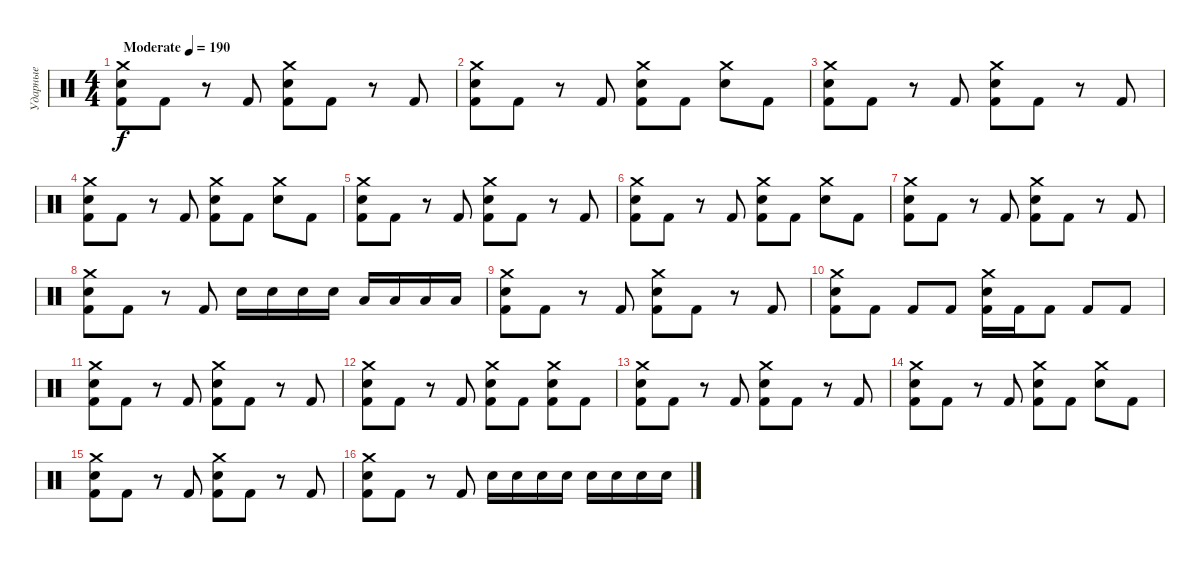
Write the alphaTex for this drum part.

\track ("Ударные" "Ударные") {instrument percussion}
\staff {score}
\articulation defaults
\ts (4 4)
\tempo (190 "Moderate")
\clef neutral
\ks c
("Crash medium (hit)" "Electric Snare (hit)" "Kick (hit) 2").8{dy f} "Kick (hit) 2".8 r.8 "Kick (hit) 2".8 ("Crash medium (hit)" "Electric Snare (hit)" "Kick (hit) 2").8 "Kick (hit) 2".8 r.8 "Kick (hit) 2".8 |
("Crash medium (hit)" "Electric Snare (hit)" "Kick (hit) 2").8 "Kick (hit) 2".8 r.8 "Kick (hit) 2".8 ("Crash medium (hit)" "Electric Snare (hit)" "Kick (hit) 2").8 "Kick (hit) 2".8 ("Crash medium (hit)" "Electric Snare (hit)").8 "Kick (hit) 2".8 |
("Crash medium (hit)" "Electric Snare (hit)" "Kick (hit) 2").8 "Kick (hit) 2".8 r.8 "Kick (hit) 2".8 ("Crash medium (hit)" "Electric Snare (hit)" "Kick (hit) 2").8 "Kick (hit) 2".8 r.8 "Kick (hit) 2".8 |
("Crash medium (hit)" "Electric Snare (hit)" "Kick (hit) 2").8 "Kick (hit) 2".8 r.8 "Kick (hit) 2".8 ("Crash medium (hit)" "Electric Snare (hit)" "Kick (hit) 2").8 "Kick (hit) 2".8 ("Crash medium (hit)" "Electric Snare (hit)").8 "Kick (hit) 2".8 |
("Crash medium (hit)" "Electric Snare (hit)" "Kick (hit) 2").8 "Kick (hit) 2".8 r.8 "Kick (hit) 2".8 ("Crash medium (hit)" "Electric Snare (hit)" "Kick (hit) 2").8 "Kick (hit) 2".8 r.8 "Kick (hit) 2".8 |
("Crash medium (hit)" "Electric Snare (hit)" "Kick (hit) 2").8 "Kick (hit) 2".8 r.8 "Kick (hit) 2".8 ("Crash medium (hit)" "Electric Snare (hit)" "Kick (hit) 2").8 "Kick (hit) 2".8 ("Crash medium (hit)" "Electric Snare (hit)").8 "Kick (hit) 2".8 |
("Crash medium (hit)" "Electric Snare (hit)" "Kick (hit) 2").8 "Kick (hit) 2".8 r.8 "Kick (hit) 2".8 ("Crash medium (hit)" "Electric Snare (hit)" "Kick (hit) 2").8 "Kick (hit) 2".8 r.8 "Kick (hit) 2".8 |
("Crash medium (hit)" "Electric Snare (hit)" "Kick (hit) 2").8 "Kick (hit) 2".8 r.8 "Kick (hit) 2".8 "Electric Snare (hit)".16 "Electric Snare (hit)".16 "Electric Snare (hit)".16 "Electric Snare (hit)".16 "Low Tom (hit)".16 "Low Tom (hit)".16 "Low Tom (hit)".16 "Low Tom (hit)".16 |
("Crash medium (hit)" "Electric Snare (hit)" "Kick (hit) 2").8 "Kick (hit) 2".8 r.8 "Kick (hit) 2".8 ("Crash medium (hit)" "Electric Snare (hit)" "Kick (hit) 2").8 "Kick (hit) 2".8 r.8 "Kick (hit) 2".8 |
("Crash medium (hit)" "Electric Snare (hit)" "Kick (hit) 2").8 "Kick (hit) 2".8 "Kick (hit) 2".8 "Kick (hit) 2".8 ("Crash medium (hit)" "Electric Snare (hit)" "Kick (hit) 2").16 "Kick (hit) 2".16 "Kick (hit) 2".8 "Kick (hit) 2".8 "Kick (hit) 2".8 |
("Crash medium (hit)" "Electric Snare (hit)" "Kick (hit) 2").8 "Kick (hit) 2".8 r.8 "Kick (hit) 2".8 ("Crash medium (hit)" "Electric Snare (hit)" "Kick (hit) 2").8 "Kick (hit) 2".8 r.8 "Kick (hit) 2".8 |
("Crash medium (hit)" "Electric Snare (hit)" "Kick (hit) 2").8 "Kick (hit) 2".8 r.8 "Kick (hit) 2".8 ("Crash medium (hit)" "Electric Snare (hit)" "Kick (hit) 2").8 "Kick (hit) 2".8 ("Crash medium (hit)" "Electric Snare (hit)" "Kick (hit) 2").8 "Kick (hit) 2".8 |
("Crash medium (hit)" "Electric Snare (hit)" "Kick (hit) 2").8 "Kick (hit) 2".8 r.8 "Kick (hit) 2".8 ("Crash medium (hit)" "Electric Snare (hit)" "Kick (hit) 2").8 "Kick (hit) 2".8 r.8 "Kick (hit) 2".8 |
("Crash medium (hit)" "Electric Snare (hit)" "Kick (hit) 2").8 "Kick (hit) 2".8 r.8 "Kick (hit) 2".8 ("Crash medium (hit)" "Electric Snare (hit)" "Kick (hit) 2").8 "Kick (hit) 2".8 ("Crash medium (hit)" "Electric Snare (hit)").8 "Kick (hit) 2".8 |
("Crash medium (hit)" "Electric Snare (hit)" "Kick (hit) 2").8 "Kick (hit) 2".8 r.8 "Kick (hit) 2".8 ("Crash medium (hit)" "Electric Snare (hit)" "Kick (hit) 2").8 "Kick (hit) 2".8 r.8 "Kick (hit) 2".8 |
("Crash medium (hit)" "Electric Snare (hit)" "Kick (hit) 2").8 "Kick (hit) 2".8 r.8 "Kick (hit) 2".8 "Electric Snare (hit)".16 "Electric Snare (hit)".16 "Electric Snare (hit)".16 "Electric Snare (hit)".16 "Electric Snare (hit)".16 "Electric Snare (hit)".16 "Electric Snare (hit)".16 "Electric Snare (hit)".16
